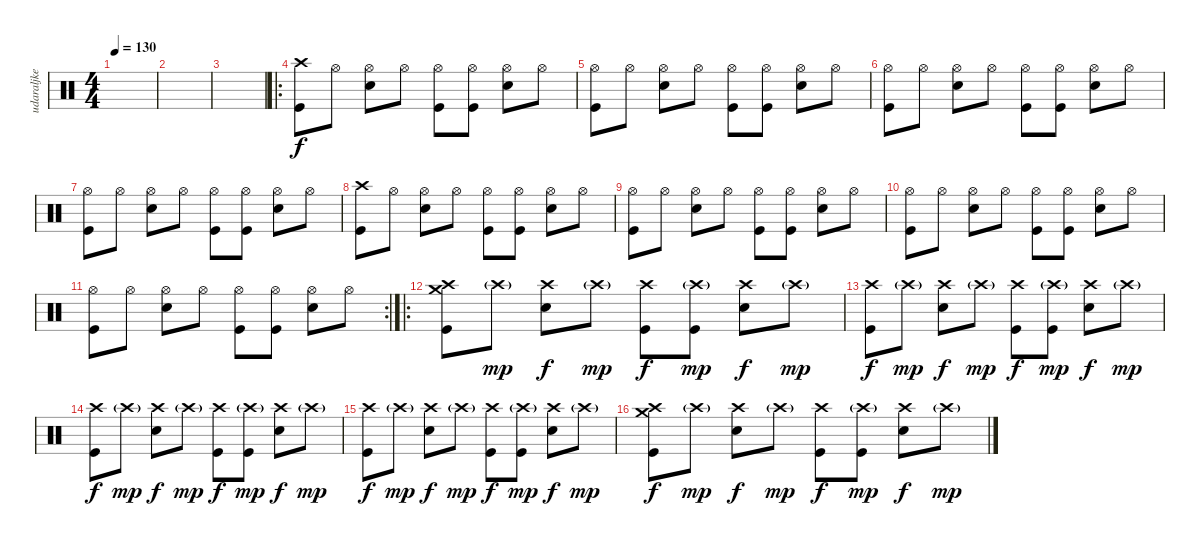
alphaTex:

\track ("udaraljke" "udaraljke") {instrument percussion}
\staff {score}
\articulation defaults
\ts (4 4)
\tempo 130
\clef neutral
\ks c
|
|
|
\ro
("Crash high (hit)" "Kick (hit)").8 "Hi-Hat (open)".8 ("Hi-Hat (open)" "Electric Snare (hit)").8 "Hi-Hat (open)".8 ("Hi-Hat (open)" "Kick (hit)").8 ("Hi-Hat (open)" "Kick (hit)").8 ("Hi-Hat (open)" "Electric Snare (hit)").8 "Hi-Hat (open)".8 |
("Hi-Hat (open)" "Kick (hit)").8 "Hi-Hat (open)".8 ("Hi-Hat (open)" "Electric Snare (hit)").8 "Hi-Hat (open)".8 ("Hi-Hat (open)" "Kick (hit)").8 ("Hi-Hat (open)" "Kick (hit)").8 ("Hi-Hat (open)" "Electric Snare (hit)").8 "Hi-Hat (open)".8 |
("Hi-Hat (open)" "Kick (hit)").8 "Hi-Hat (open)".8 ("Hi-Hat (open)" "Electric Snare (hit)").8 "Hi-Hat (open)".8 ("Hi-Hat (open)" "Kick (hit)").8 ("Hi-Hat (open)" "Kick (hit)").8 ("Hi-Hat (open)" "Electric Snare (hit)").8 "Hi-Hat (open)".8 |
("Hi-Hat (open)" "Kick (hit)").8 "Hi-Hat (open)".8 ("Hi-Hat (open)" "Electric Snare (hit)").8 "Hi-Hat (open)".8 ("Hi-Hat (open)" "Kick (hit)").8 ("Hi-Hat (open)" "Kick (hit)").8 ("Hi-Hat (open)" "Electric Snare (hit)").8 "Hi-Hat (open)".8 |
("Crash high (hit)" "Kick (hit)").8 "Hi-Hat (open)".8 ("Hi-Hat (open)" "Electric Snare (hit)").8 "Hi-Hat (open)".8 ("Hi-Hat (open)" "Kick (hit)").8 ("Hi-Hat (open)" "Kick (hit)").8 ("Hi-Hat (open)" "Electric Snare (hit)").8 "Hi-Hat (open)".8 |
("Hi-Hat (open)" "Kick (hit)").8 "Hi-Hat (open)".8 ("Hi-Hat (open)" "Electric Snare (hit)").8 "Hi-Hat (open)".8 ("Hi-Hat (open)" "Kick (hit)").8 ("Hi-Hat (open)" "Kick (hit)").8 ("Hi-Hat (open)" "Electric Snare (hit)").8 "Hi-Hat (open)".8 |
("Hi-Hat (open)" "Kick (hit)").8 "Hi-Hat (open)".8 ("Hi-Hat (open)" "Electric Snare (hit)").8 "Hi-Hat (open)".8 ("Hi-Hat (open)" "Kick (hit)").8 ("Hi-Hat (open)" "Kick (hit)").8 ("Hi-Hat (open)" "Electric Snare (hit)").8 "Hi-Hat (open)".8 |
\rc 2
("Hi-Hat (open)" "Kick (hit)").8 "Hi-Hat (open)".8 ("Hi-Hat (open)" "Electric Snare (hit)").8 "Hi-Hat (open)".8 ("Hi-Hat (open)" "Kick (hit)").8 ("Hi-Hat (open)" "Kick (hit)").8 ("Hi-Hat (open)" "Electric Snare (hit)").8 "Hi-Hat (open)".8 |
\ro
("Crash high (hit)" "Crash medium (hit)" "Kick (hit)").8 "Crash high (hit)"{g}.8{dy mp} ("Crash high (hit)" "Electric Snare (hit)").8{dy f} "Crash high (hit)"{g}.8{dy mp} ("Crash high (hit)" "Kick (hit)").8{dy f} ("Crash high (hit)"{g} "Kick (hit)").8{dy mp} ("Crash high (hit)" "Electric Snare (hit)").8{dy f} "Crash high (hit)"{g}.8{dy mp} |
("Crash high (hit)" "Kick (hit)").8{dy f} "Crash high (hit)"{g}.8{dy mp} ("Crash high (hit)" "Electric Snare (hit)").8{dy f} "Crash high (hit)"{g}.8{dy mp} ("Crash high (hit)" "Kick (hit)").8{dy f} ("Crash high (hit)"{g} "Kick (hit)").8{dy mp} ("Crash high (hit)" "Electric Snare (hit)").8{dy f} "Crash high (hit)"{g}.8{dy mp} |
("Crash high (hit)" "Kick (hit)").8{dy f} "Crash high (hit)"{g}.8{dy mp} ("Crash high (hit)" "Electric Snare (hit)").8{dy f} "Crash high (hit)"{g}.8{dy mp} ("Crash high (hit)" "Kick (hit)").8{dy f} ("Crash high (hit)"{g} "Kick (hit)").8{dy mp} ("Crash high (hit)" "Electric Snare (hit)").8{dy f} "Crash high (hit)"{g}.8{dy mp} |
("Crash high (hit)" "Kick (hit)").8{dy f} "Crash high (hit)"{g}.8{dy mp} ("Crash high (hit)" "Electric Snare (hit)").8{dy f} "Crash high (hit)"{g}.8{dy mp} ("Crash high (hit)" "Kick (hit)").8{dy f} ("Crash high (hit)"{g} "Kick (hit)").8{dy mp} ("Crash high (hit)" "Electric Snare (hit)").8{dy f} "Crash high (hit)"{g}.8{dy mp} |
("Crash high (hit)" "Crash medium (hit)" "Kick (hit)").8{dy f} "Crash high (hit)"{g}.8{dy mp} ("Crash high (hit)" "Electric Snare (hit)").8{dy f} "Crash high (hit)"{g}.8{dy mp} ("Crash high (hit)" "Kick (hit)").8{dy f} ("Crash high (hit)"{g} "Kick (hit)").8{dy mp} ("Crash high (hit)" "Electric Snare (hit)").8{dy f} "Crash high (hit)"{g}.8{dy mp}
